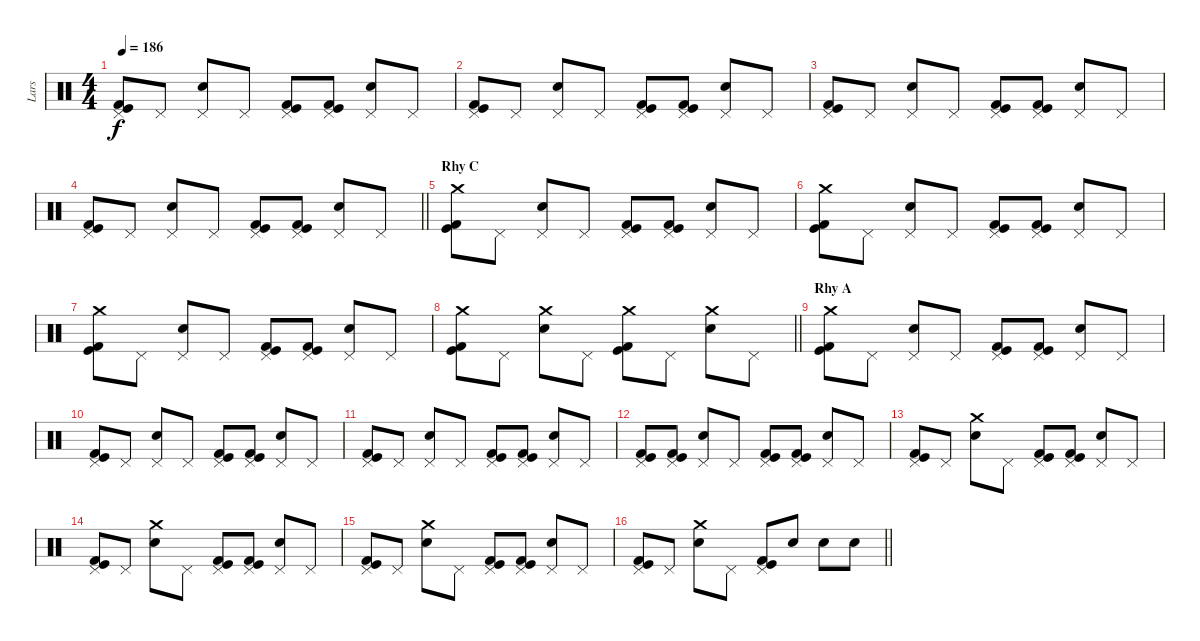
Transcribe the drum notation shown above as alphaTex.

\track ("Lars" "Lars") {instrument percussion}
\staff {score}
\articulation defaults
\ts (4 4)
\tempo 186
\clef neutral
\ks c
("Pedal Hi-Hat (hit)" "Kick (hit)" "Kick (hit) 2").8{dy f} "Pedal Hi-Hat (hit)".8 ("Pedal Hi-Hat (hit)" "Electric Snare (hit)").8 "Pedal Hi-Hat (hit)".8 ("Pedal Hi-Hat (hit)" "Kick (hit)" "Kick (hit) 2").8 ("Pedal Hi-Hat (hit)" "Kick (hit)" "Kick (hit) 2").8 ("Pedal Hi-Hat (hit)" "Electric Snare (hit)").8 "Pedal Hi-Hat (hit)".8 |
("Pedal Hi-Hat (hit)" "Kick (hit)" "Kick (hit) 2").8 "Pedal Hi-Hat (hit)".8 ("Pedal Hi-Hat (hit)" "Electric Snare (hit)").8 "Pedal Hi-Hat (hit)".8 ("Pedal Hi-Hat (hit)" "Kick (hit)" "Kick (hit) 2").8 ("Pedal Hi-Hat (hit)" "Kick (hit)" "Kick (hit) 2").8 ("Pedal Hi-Hat (hit)" "Electric Snare (hit)").8 "Pedal Hi-Hat (hit)".8 |
("Pedal Hi-Hat (hit)" "Kick (hit)" "Kick (hit) 2").8 "Pedal Hi-Hat (hit)".8 ("Pedal Hi-Hat (hit)" "Electric Snare (hit)").8 "Pedal Hi-Hat (hit)".8 ("Pedal Hi-Hat (hit)" "Kick (hit)" "Kick (hit) 2").8 ("Pedal Hi-Hat (hit)" "Kick (hit)" "Kick (hit) 2").8 ("Pedal Hi-Hat (hit)" "Electric Snare (hit)").8 "Pedal Hi-Hat (hit)".8 |
\barLineRight lightlight
("Pedal Hi-Hat (hit)" "Kick (hit)" "Kick (hit) 2").8 "Pedal Hi-Hat (hit)".8 ("Pedal Hi-Hat (hit)" "Electric Snare (hit)").8 "Pedal Hi-Hat (hit)".8 ("Pedal Hi-Hat (hit)" "Kick (hit)" "Kick (hit) 2").8 ("Pedal Hi-Hat (hit)" "Kick (hit)" "Kick (hit) 2").8 ("Pedal Hi-Hat (hit)" "Electric Snare (hit)").8 "Pedal Hi-Hat (hit)".8 |
\section ("" "Rhy C")
("Crash medium (hit)" "Kick (hit)" "Kick (hit) 2").8 "Pedal Hi-Hat (hit)".8 ("Pedal Hi-Hat (hit)" "Electric Snare (hit)").8 "Pedal Hi-Hat (hit)".8 ("Pedal Hi-Hat (hit)" "Kick (hit)" "Kick (hit) 2").8 ("Pedal Hi-Hat (hit)" "Kick (hit)" "Kick (hit) 2").8 ("Pedal Hi-Hat (hit)" "Electric Snare (hit)").8 "Pedal Hi-Hat (hit)".8 |
("Crash medium (hit)" "Kick (hit)" "Kick (hit) 2").8 "Pedal Hi-Hat (hit)".8 ("Pedal Hi-Hat (hit)" "Electric Snare (hit)").8 "Pedal Hi-Hat (hit)".8 ("Pedal Hi-Hat (hit)" "Kick (hit)" "Kick (hit) 2").8 ("Pedal Hi-Hat (hit)" "Kick (hit)" "Kick (hit) 2").8 ("Pedal Hi-Hat (hit)" "Electric Snare (hit)").8 "Pedal Hi-Hat (hit)".8 |
("Crash medium (hit)" "Kick (hit)" "Kick (hit) 2").8 "Pedal Hi-Hat (hit)".8 ("Pedal Hi-Hat (hit)" "Electric Snare (hit)").8 "Pedal Hi-Hat (hit)".8 ("Pedal Hi-Hat (hit)" "Kick (hit)" "Kick (hit) 2").8 ("Pedal Hi-Hat (hit)" "Kick (hit)" "Kick (hit) 2").8 ("Pedal Hi-Hat (hit)" "Electric Snare (hit)").8 "Pedal Hi-Hat (hit)".8 |
\barLineRight lightlight
("Crash medium (hit)" "Kick (hit)" "Kick (hit) 2").8 "Pedal Hi-Hat (hit)".8 ("Crash medium (hit)" "Electric Snare (hit)").8 "Pedal Hi-Hat (hit)".8 ("Crash medium (hit)" "Kick (hit)" "Kick (hit) 2").8 "Pedal Hi-Hat (hit)".8 ("Crash medium (hit)" "Electric Snare (hit)").8 "Pedal Hi-Hat (hit)".8 |
\section ("" "Rhy A")
("Crash medium (hit)" "Kick (hit)" "Kick (hit) 2").8 "Pedal Hi-Hat (hit)".8 ("Pedal Hi-Hat (hit)" "Electric Snare (hit)").8 "Pedal Hi-Hat (hit)".8 ("Pedal Hi-Hat (hit)" "Kick (hit)" "Kick (hit) 2").8 ("Pedal Hi-Hat (hit)" "Kick (hit)" "Kick (hit) 2").8 ("Pedal Hi-Hat (hit)" "Electric Snare (hit)").8 "Pedal Hi-Hat (hit)".8 |
("Pedal Hi-Hat (hit)" "Kick (hit)" "Kick (hit) 2").8 "Pedal Hi-Hat (hit)".8 ("Pedal Hi-Hat (hit)" "Electric Snare (hit)").8 "Pedal Hi-Hat (hit)".8 ("Pedal Hi-Hat (hit)" "Kick (hit)" "Kick (hit) 2").8 ("Pedal Hi-Hat (hit)" "Kick (hit)" "Kick (hit) 2").8 ("Pedal Hi-Hat (hit)" "Electric Snare (hit)").8 "Pedal Hi-Hat (hit)".8 |
("Pedal Hi-Hat (hit)" "Kick (hit)" "Kick (hit) 2").8 "Pedal Hi-Hat (hit)".8 ("Pedal Hi-Hat (hit)" "Electric Snare (hit)").8 "Pedal Hi-Hat (hit)".8 ("Pedal Hi-Hat (hit)" "Kick (hit)" "Kick (hit) 2").8 ("Pedal Hi-Hat (hit)" "Kick (hit)" "Kick (hit) 2").8 ("Pedal Hi-Hat (hit)" "Electric Snare (hit)").8 "Pedal Hi-Hat (hit)".8 |
("Pedal Hi-Hat (hit)" "Kick (hit)" "Kick (hit) 2").8 ("Pedal Hi-Hat (hit)" "Kick (hit)" "Kick (hit) 2").8 ("Pedal Hi-Hat (hit)" "Electric Snare (hit)").8 "Pedal Hi-Hat (hit)".8 ("Pedal Hi-Hat (hit)" "Kick (hit)" "Kick (hit) 2").8 ("Pedal Hi-Hat (hit)" "Kick (hit)" "Kick (hit) 2").8 ("Pedal Hi-Hat (hit)" "Electric Snare (hit)").8 "Pedal Hi-Hat (hit)".8 |
("Pedal Hi-Hat (hit)" "Kick (hit)" "Kick (hit) 2").8 "Pedal Hi-Hat (hit)".8 ("Crash medium (hit)" "Electric Snare (hit)").8 "Pedal Hi-Hat (hit)".8 ("Pedal Hi-Hat (hit)" "Kick (hit)" "Kick (hit) 2").8 ("Pedal Hi-Hat (hit)" "Kick (hit)" "Kick (hit) 2").8 ("Pedal Hi-Hat (hit)" "Electric Snare (hit)").8 "Pedal Hi-Hat (hit)".8 |
("Pedal Hi-Hat (hit)" "Kick (hit)" "Kick (hit) 2").8 "Pedal Hi-Hat (hit)".8 ("Crash medium (hit)" "Electric Snare (hit)").8 "Pedal Hi-Hat (hit)".8 ("Pedal Hi-Hat (hit)" "Kick (hit)" "Kick (hit) 2").8 ("Pedal Hi-Hat (hit)" "Kick (hit)" "Kick (hit) 2").8 ("Pedal Hi-Hat (hit)" "Electric Snare (hit)").8 "Pedal Hi-Hat (hit)".8 |
("Pedal Hi-Hat (hit)" "Kick (hit)" "Kick (hit) 2").8 "Pedal Hi-Hat (hit)".8 ("Crash medium (hit)" "Electric Snare (hit)").8 "Pedal Hi-Hat (hit)".8 ("Pedal Hi-Hat (hit)" "Kick (hit)" "Kick (hit) 2").8 ("Pedal Hi-Hat (hit)" "Kick (hit)" "Kick (hit) 2").8 ("Pedal Hi-Hat (hit)" "Electric Snare (hit)").8 "Pedal Hi-Hat (hit)".8 |
\barLineRight lightlight
("Pedal Hi-Hat (hit)" "Kick (hit)" "Kick (hit) 2").8 "Pedal Hi-Hat (hit)".8 ("Crash medium (hit)" "Electric Snare (hit)").8 "Pedal Hi-Hat (hit)".8 ("Pedal Hi-Hat (hit)" "Kick (hit)" "Kick (hit) 2").8 "Electric Snare (hit)".8 "Electric Snare (hit)".8 "Electric Snare (hit)".8
